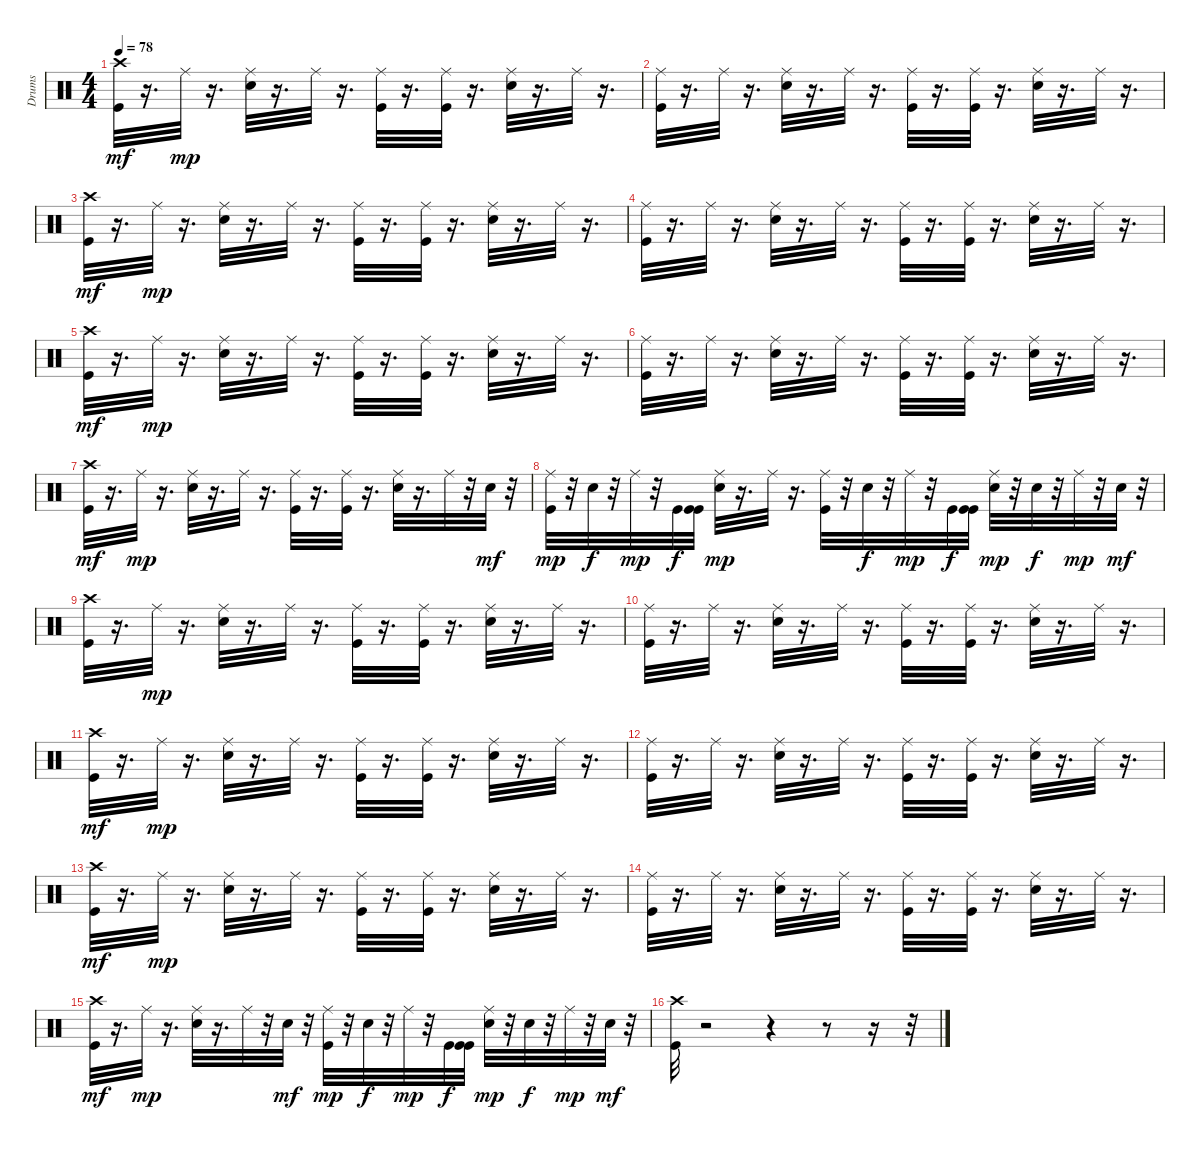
\track ("Drums" "Drums") {instrument percussion}
\staff {score}
\articulation defaults
\ts (4 4)
\tempo 78
\clef neutral
\ks c
("Kick (hit)" "Crash high (hit)").32{dy mf} r.16{d} "Ride (middle)".32{dy mp} r.16{d} ("Snare (hit) 2" "Ride (middle)").32 r.16{d} "Ride (middle)".32 r.16{d} ("Kick (hit)" "Ride (middle)").32 r.16{d} ("Kick (hit)" "Ride (middle)").32 r.16{d} ("Snare (hit) 2" "Ride (middle)").32 r.16{d} "Ride (middle)".32 r.16{d} |
("Kick (hit)" "Ride (middle)").32 r.16{d} "Ride (middle)".32 r.16{d} ("Snare (hit) 2" "Ride (middle)").32 r.16{d} "Ride (middle)".32 r.16{d} ("Kick (hit)" "Ride (middle)").32 r.16{d} ("Kick (hit)" "Ride (middle)").32 r.16{d} ("Snare (hit) 2" "Ride (middle)").32 r.16{d} "Ride (middle)".32 r.16{d} |
("Kick (hit)" "Crash high (hit)").32{dy mf} r.16{d} "Ride (middle)".32{dy mp} r.16{d} ("Snare (hit) 2" "Ride (middle)").32 r.16{d} "Ride (middle)".32 r.16{d} ("Kick (hit)" "Ride (middle)").32 r.16{d} ("Kick (hit)" "Ride (middle)").32 r.16{d} ("Snare (hit) 2" "Ride (middle)").32 r.16{d} "Ride (middle)".32 r.16{d} |
("Kick (hit)" "Ride (middle)").32 r.16{d} "Ride (middle)".32 r.16{d} ("Snare (hit) 2" "Ride (middle)").32 r.16{d} "Ride (middle)".32 r.16{d} ("Kick (hit)" "Ride (middle)").32 r.16{d} ("Kick (hit)" "Ride (middle)").32 r.16{d} ("Snare (hit) 2" "Ride (middle)").32 r.16{d} "Ride (middle)".32 r.16{d} |
("Kick (hit)" "Crash high (hit)").32{dy mf} r.16{d} "Ride (middle)".32{dy mp} r.16{d} ("Snare (hit) 2" "Ride (middle)").32 r.16{d} "Ride (middle)".32 r.16{d} ("Kick (hit)" "Ride (middle)").32 r.16{d} ("Kick (hit)" "Ride (middle)").32 r.16{d} ("Snare (hit) 2" "Ride (middle)").32 r.16{d} "Ride (middle)".32 r.16{d} |
("Kick (hit)" "Ride (middle)").32 r.16{d} "Ride (middle)".32 r.16{d} ("Snare (hit) 2" "Ride (middle)").32 r.16{d} "Ride (middle)".32 r.16{d} ("Kick (hit)" "Ride (middle)").32 r.16{d} ("Kick (hit)" "Ride (middle)").32 r.16{d} ("Snare (hit) 2" "Ride (middle)").32 r.16{d} "Ride (middle)".32 r.16{d} |
("Kick (hit)" "Crash high (hit)").32{dy mf} r.16{d} "Ride (middle)".32{dy mp} r.16{d} ("Snare (hit) 2" "Ride (middle)").32 r.16{d} "Ride (middle)".32 r.16{d} ("Kick (hit)" "Ride (middle)").32 r.16{d} ("Kick (hit)" "Ride (middle)").32 r.16{d} ("Snare (hit) 2" "Ride (middle)").32 r.16{d} "Ride (middle)".32 r.32 "Snare (hit) 2".32{dy mf} r.32 |
("Kick (hit)" "Ride (middle)").32{dy mp} r.32 "Snare (hit) 2".32{dy f} r.32 "Ride (middle)".32{dy mp} r.32 "Kick (hit)".32{dy f} ("Kick (hit)" "Kick (hit)").32 ("Snare (hit) 2" "Ride (middle)").32{dy mp} r.16{d} "Ride (middle)".32 r.16{d} ("Kick (hit)" "Ride (middle)").32 r.32 "Snare (hit) 2".32{dy f} r.32 "Ride (middle)".32{dy mp} r.32 "Kick (hit)".32{dy f} ("Kick (hit)" "Kick (hit)").32 ("Snare (hit) 2" "Ride (middle)").32{dy mp} r.32 "Snare (hit) 2".32{dy f} r.32 "Ride (middle)".32{dy mp} r.32 "Snare (hit) 2".32{dy mf} r.32 |
("Kick (hit)" "Crash high (hit)").32 r.16{d} "Ride (middle)".32{dy mp} r.16{d} ("Snare (hit) 2" "Ride (middle)").32 r.16{d} "Ride (middle)".32 r.16{d} ("Kick (hit)" "Ride (middle)").32 r.16{d} ("Kick (hit)" "Ride (middle)").32 r.16{d} ("Snare (hit) 2" "Ride (middle)").32 r.16{d} "Ride (middle)".32 r.16{d} |
("Kick (hit)" "Ride (middle)").32 r.16{d} "Ride (middle)".32 r.16{d} ("Snare (hit) 2" "Ride (middle)").32 r.16{d} "Ride (middle)".32 r.16{d} ("Kick (hit)" "Ride (middle)").32 r.16{d} ("Kick (hit)" "Ride (middle)").32 r.16{d} ("Snare (hit) 2" "Ride (middle)").32 r.16{d} "Ride (middle)".32 r.16{d} |
("Kick (hit)" "Crash high (hit)").32{dy mf} r.16{d} "Ride (middle)".32{dy mp} r.16{d} ("Snare (hit) 2" "Ride (middle)").32 r.16{d} "Ride (middle)".32 r.16{d} ("Kick (hit)" "Ride (middle)").32 r.16{d} ("Kick (hit)" "Ride (middle)").32 r.16{d} ("Snare (hit) 2" "Ride (middle)").32 r.16{d} "Ride (middle)".32 r.16{d} |
("Kick (hit)" "Ride (middle)").32 r.16{d} "Ride (middle)".32 r.16{d} ("Snare (hit) 2" "Ride (middle)").32 r.16{d} "Ride (middle)".32 r.16{d} ("Kick (hit)" "Ride (middle)").32 r.16{d} ("Kick (hit)" "Ride (middle)").32 r.16{d} ("Snare (hit) 2" "Ride (middle)").32 r.16{d} "Ride (middle)".32 r.16{d} |
("Kick (hit)" "Crash high (hit)").32{dy mf} r.16{d} "Ride (middle)".32{dy mp} r.16{d} ("Snare (hit) 2" "Ride (middle)").32 r.16{d} "Ride (middle)".32 r.16{d} ("Kick (hit)" "Ride (middle)").32 r.16{d} ("Kick (hit)" "Ride (middle)").32 r.16{d} ("Snare (hit) 2" "Ride (middle)").32 r.16{d} "Ride (middle)".32 r.16{d} |
("Kick (hit)" "Ride (middle)").32 r.16{d} "Ride (middle)".32 r.16{d} ("Snare (hit) 2" "Ride (middle)").32 r.16{d} "Ride (middle)".32 r.16{d} ("Kick (hit)" "Ride (middle)").32 r.16{d} ("Kick (hit)" "Ride (middle)").32 r.16{d} ("Snare (hit) 2" "Ride (middle)").32 r.16{d} "Ride (middle)".32 r.16{d} |
("Kick (hit)" "Crash high (hit)").32{dy mf} r.16{d} "Ride (middle)".32{dy mp} r.16{d} ("Snare (hit) 2" "Ride (middle)").32 r.16{d} "Ride (middle)".32 r.32 "Snare (hit) 2".32{dy mf} r.32 ("Kick (hit)" "Ride (middle)").32{dy mp} r.32 "Snare (hit) 2".32{dy f} r.32 "Ride (middle)".32{dy mp} r.32 "Kick (hit)".32{dy f} ("Kick (hit)" "Kick (hit)").32 ("Snare (hit) 2" "Ride (middle)").32{dy mp} r.32 "Snare (hit) 2".32{dy f} r.32 "Ride (middle)".32{dy mp} r.32 "Snare (hit) 2".32{dy mf} r.32 |
("Kick (hit)" "Crash high (hit)").32 r.2 r.4 r.8 r.16 r.32
